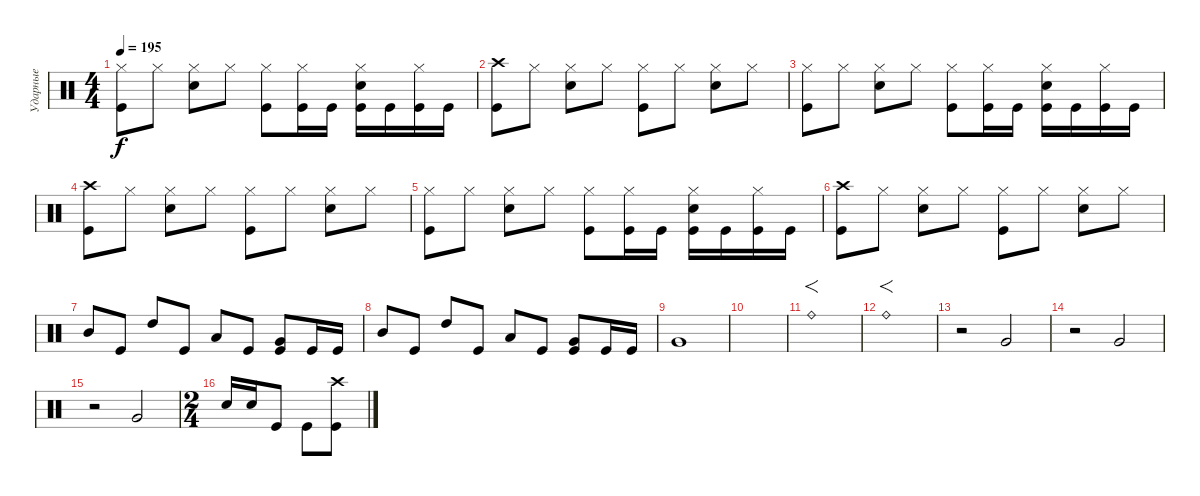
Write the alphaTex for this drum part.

\track ("Ударные" "Ударные") {instrument percussion}
\staff {score}
\articulation defaults
\ts (4 4)
\tempo 195
\clef neutral
\ks c
("Hi-Hat (closed)" "Kick (hit)").8{dy f} "Hi-Hat (closed)".8 ("Hi-Hat (closed)" "Electric Snare (hit)").8 "Hi-Hat (closed)".8 ("Hi-Hat (closed)" "Kick (hit)").8 ("Hi-Hat (closed)" "Kick (hit)").16 "Kick (hit)".16 ("Hi-Hat (closed)" "Electric Snare (hit)" "Kick (hit)").16 "Kick (hit)".16 ("Hi-Hat (closed)" "Kick (hit)").16 "Kick (hit)".16 |
("Crash high (hit)" "Kick (hit)").8 "Hi-Hat (closed)".8 ("Hi-Hat (closed)" "Electric Snare (hit)").8 "Hi-Hat (closed)".8 ("Hi-Hat (closed)" "Kick (hit)").8 "Hi-Hat (closed)".8 ("Hi-Hat (closed)" "Electric Snare (hit)").8 "Hi-Hat (closed)".8 |
("Hi-Hat (closed)" "Kick (hit)").8 "Hi-Hat (closed)".8 ("Hi-Hat (closed)" "Electric Snare (hit)").8 "Hi-Hat (closed)".8 ("Hi-Hat (closed)" "Kick (hit)").8 ("Hi-Hat (closed)" "Kick (hit)").16 "Kick (hit)".16 ("Hi-Hat (closed)" "Electric Snare (hit)" "Kick (hit)").16 "Kick (hit)".16 ("Hi-Hat (closed)" "Kick (hit)").16 "Kick (hit)".16 |
("Crash high (hit)" "Kick (hit)").8 "Hi-Hat (closed)".8 ("Hi-Hat (closed)" "Electric Snare (hit)").8 "Hi-Hat (closed)".8 ("Hi-Hat (closed)" "Kick (hit)").8 "Hi-Hat (closed)".8 ("Hi-Hat (closed)" "Electric Snare (hit)").8 "Hi-Hat (closed)".8 |
("Hi-Hat (closed)" "Kick (hit)").8 "Hi-Hat (closed)".8 ("Hi-Hat (closed)" "Electric Snare (hit)").8 "Hi-Hat (closed)".8 ("Hi-Hat (closed)" "Kick (hit)").8 ("Hi-Hat (closed)" "Kick (hit)").16 "Kick (hit)".16 ("Hi-Hat (closed)" "Electric Snare (hit)" "Kick (hit)").16 "Kick (hit)".16 ("Hi-Hat (closed)" "Kick (hit)").16 "Kick (hit)".16 |
("Crash high (hit)" "Kick (hit)").8 "Hi-Hat (closed)".8 ("Hi-Hat (closed)" "Electric Snare (hit)").8 "Hi-Hat (closed)".8 ("Hi-Hat (closed)" "Kick (hit)").8 "Hi-Hat (closed)".8 ("Hi-Hat (closed)" "Electric Snare (hit)").8 "Hi-Hat (closed)".8 |
"Mid Tom (hit)".8 "Kick (hit)".8 "High Tom (hit)".8 "Kick (hit)".8 "Low Tom (hit)".8 "Kick (hit)".8 ("Very Low Tom (hit)" "Kick (hit)").8 "Kick (hit)".16 "Kick (hit)".16 |
"Mid Tom (hit)".8 "Kick (hit)".8 "High Tom (hit)".8 "Kick (hit)".8 "Low Tom (hit)".8 "Kick (hit)".8 ("Very Low Tom (hit)" "Kick (hit)").8 "Kick (hit)".16 "Kick (hit)".16 |
"Very Low Tom (hit)".1 |
|
"Ride (bell)".1{f} |
"Ride (bell)".1{f} |
r.2 "Very Low Tom (hit)".2 |
r.2 "Very Low Tom (hit)".2 |
r.2 "Very Low Tom (hit)".2 |
\ts (2 4)
"Electric Snare (hit)".16 "Electric Snare (hit)".16 "Kick (hit)".8 "Kick (hit)".8 ("Crash high (hit)" "Kick (hit)").8
